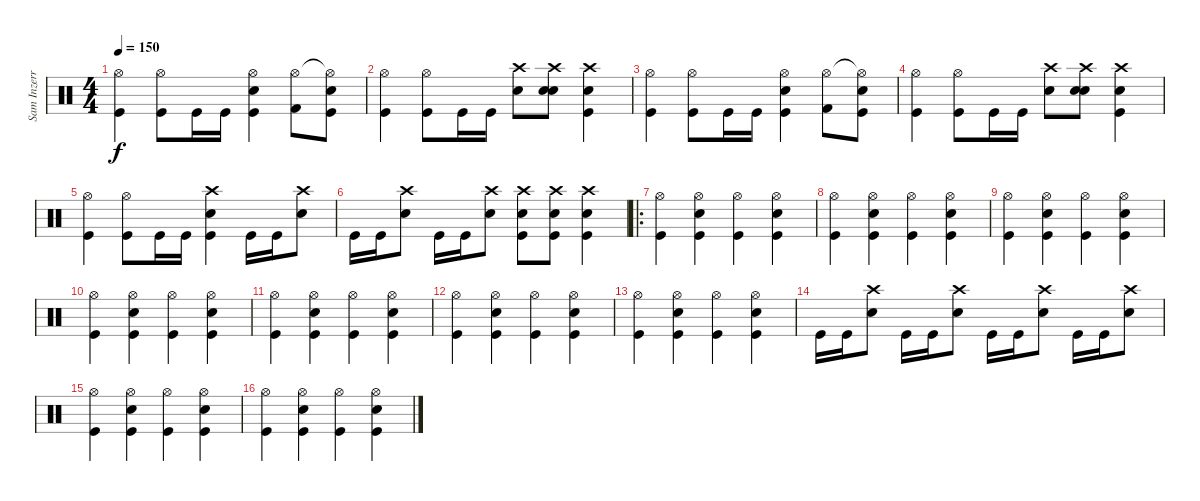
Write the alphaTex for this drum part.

\track ("Sam Inzerra(Percusión)" "Sam Inzerr") {instrument percussion}
\staff {score}
\articulation defaults
\ts (4 4)
\tempo 150
\clef neutral
\ks c
("Hi-Hat (open)" "Kick (hit)").4{dy f} ("Hi-Hat (open)" "Kick (hit)").8 "Kick (hit)".16 "Kick (hit)".16 ("Hi-Hat (open)" "Electric Snare (hit)" "Kick (hit)").4 ("Hi-Hat (open)" "Kick (hit) 2").8 ("Hi-Hat (open)"{t} "Electric Snare (hit)" "Kick (hit)").8 |
("Hi-Hat (open)" "Kick (hit)").4 ("Hi-Hat (open)" "Kick (hit)").8 "Kick (hit)".16 "Kick (hit)".16 ("Crash high (hit)" "Electric Snare (hit)").8 ("Crash high (hit)" "Electric Snare (hit)" "Electric Snare (hit)").8 ("Crash high (hit)" "Electric Snare (hit)" "Kick (hit)").4 |
("Hi-Hat (open)" "Kick (hit)").4 ("Hi-Hat (open)" "Kick (hit)").8 "Kick (hit)".16 "Kick (hit)".16 ("Hi-Hat (open)" "Electric Snare (hit)" "Kick (hit)").4 ("Hi-Hat (open)" "Kick (hit) 2").8 ("Hi-Hat (open)"{t} "Electric Snare (hit)" "Kick (hit)").8 |
("Hi-Hat (open)" "Kick (hit)").4 ("Hi-Hat (open)" "Kick (hit)").8 "Kick (hit)".16 "Kick (hit)".16 ("Crash high (hit)" "Electric Snare (hit)").8 ("Crash high (hit)" "Electric Snare (hit)" "Electric Snare (hit)").8 ("Crash high (hit)" "Electric Snare (hit)" "Kick (hit)").4 |
("Hi-Hat (open)" "Kick (hit)").4 ("Hi-Hat (open)" "Kick (hit)").8 "Kick (hit)".16 "Kick (hit)".16 ("Crash high (hit)" "Electric Snare (hit)" "Kick (hit)").4 "Kick (hit)".16 "Kick (hit)".16 ("Crash high (hit)" "Electric Snare (hit)").8 |
"Kick (hit)".16 "Kick (hit)".16 ("Crash high (hit)" "Electric Snare (hit)").8 "Kick (hit)".16 "Kick (hit)".16 ("Crash high (hit)" "Electric Snare (hit)").8 ("Crash high (hit)" "Electric Snare (hit)" "Kick (hit)").8 ("Crash high (hit)" "Electric Snare (hit)" "Kick (hit)").8 ("Crash high (hit)" "Electric Snare (hit)" "Kick (hit)").4 |
\ro
("Hi-Hat (open)" "Kick (hit)").4 ("Hi-Hat (open)" "Electric Snare (hit)" "Kick (hit)").4 ("Hi-Hat (open)" "Kick (hit)").4 ("Hi-Hat (open)" "Electric Snare (hit)" "Kick (hit)").4 |
("Hi-Hat (open)" "Kick (hit)").4 ("Hi-Hat (open)" "Electric Snare (hit)" "Kick (hit)").4 ("Hi-Hat (open)" "Kick (hit)").4 ("Hi-Hat (open)" "Electric Snare (hit)" "Kick (hit)").4 |
("Hi-Hat (open)" "Kick (hit)").4 ("Hi-Hat (open)" "Electric Snare (hit)" "Kick (hit)").4 ("Hi-Hat (open)" "Kick (hit)").4 ("Hi-Hat (open)" "Electric Snare (hit)" "Kick (hit)").4 |
("Hi-Hat (open)" "Kick (hit)").4 ("Hi-Hat (open)" "Electric Snare (hit)" "Kick (hit)").4 ("Hi-Hat (open)" "Kick (hit)").4 ("Hi-Hat (open)" "Electric Snare (hit)" "Kick (hit)").4 |
("Hi-Hat (open)" "Kick (hit)").4 ("Hi-Hat (open)" "Electric Snare (hit)" "Kick (hit)").4 ("Hi-Hat (open)" "Kick (hit)").4 ("Hi-Hat (open)" "Electric Snare (hit)" "Kick (hit)").4 |
("Hi-Hat (open)" "Kick (hit)").4 ("Hi-Hat (open)" "Electric Snare (hit)" "Kick (hit)").4 ("Hi-Hat (open)" "Kick (hit)").4 ("Hi-Hat (open)" "Electric Snare (hit)" "Kick (hit)").4 |
("Hi-Hat (open)" "Kick (hit)").4 ("Hi-Hat (open)" "Electric Snare (hit)" "Kick (hit)").4 ("Hi-Hat (open)" "Kick (hit)").4 ("Hi-Hat (open)" "Electric Snare (hit)" "Kick (hit)").4 |
"Kick (hit)".16 "Kick (hit)".16 ("Crash high (hit)" "Electric Snare (hit)").8 "Kick (hit)".16 "Kick (hit)".16 ("Crash high (hit)" "Electric Snare (hit)").8 "Kick (hit)".16 "Kick (hit)".16 ("Crash high (hit)" "Electric Snare (hit)").8 "Kick (hit)".16 "Kick (hit)".16 ("Crash high (hit)" "Electric Snare (hit)").8 |
("Hi-Hat (open)" "Kick (hit)").4 ("Hi-Hat (open)" "Electric Snare (hit)" "Kick (hit)").4 ("Hi-Hat (open)" "Kick (hit)").4 ("Hi-Hat (open)" "Electric Snare (hit)" "Kick (hit)").4 |
("Hi-Hat (open)" "Kick (hit)").4 ("Hi-Hat (open)" "Electric Snare (hit)" "Kick (hit)").4 ("Hi-Hat (open)" "Kick (hit)").4 ("Hi-Hat (open)" "Electric Snare (hit)" "Kick (hit)").4
